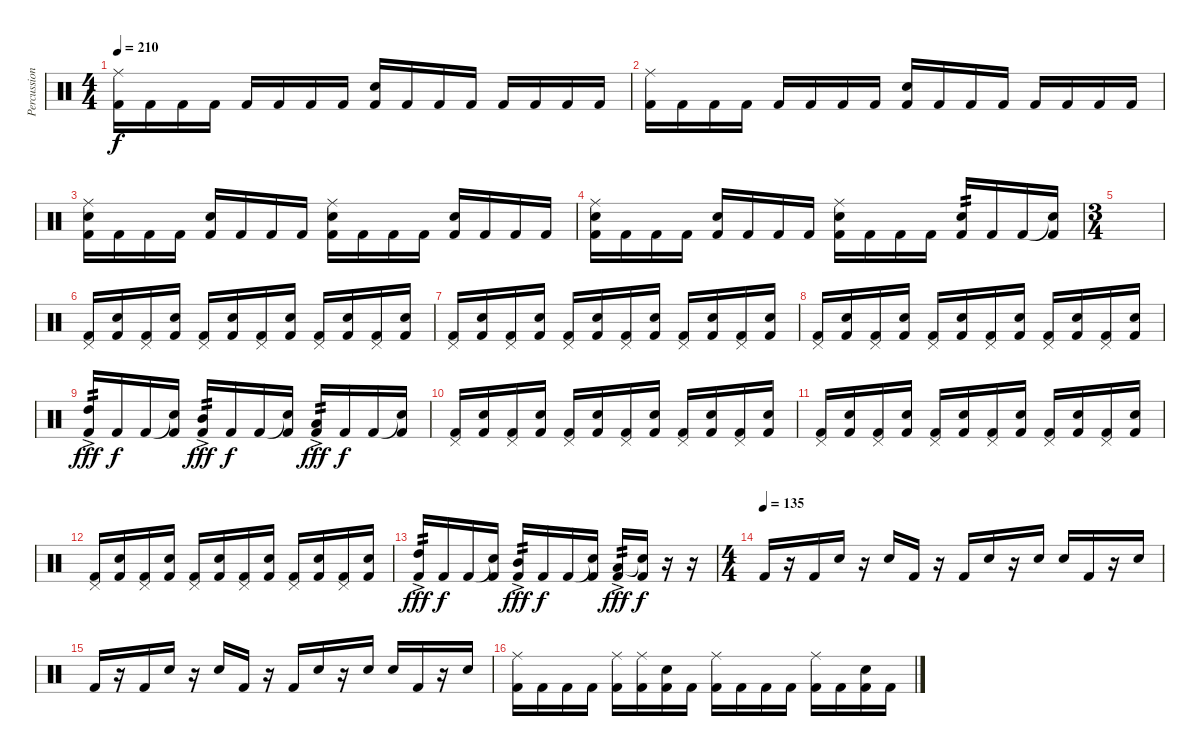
\track ("Percussions" "Percussion") {instrument percussion}
\staff {score}
\articulation defaults
\ts (4 4)
\tempo 210
\clef neutral
\ks c
("Ride (middle)" "Kick (hit) 2").16{dy f} "Kick (hit) 2".16 "Kick (hit) 2".16 "Kick (hit) 2".16 "Kick (hit) 2".16 "Kick (hit) 2".16 "Kick (hit) 2".16 "Kick (hit) 2".16 ("Snare (hit) 2" "Kick (hit) 2").16 "Kick (hit) 2".16 "Kick (hit) 2".16 "Kick (hit) 2".16 "Kick (hit) 2".16 "Kick (hit) 2".16 "Kick (hit) 2".16 "Kick (hit) 2".16 |
("Ride (middle)" "Kick (hit) 2").16 "Kick (hit) 2".16 "Kick (hit) 2".16 "Kick (hit) 2".16 "Kick (hit) 2".16 "Kick (hit) 2".16 "Kick (hit) 2".16 "Kick (hit) 2".16 ("Snare (hit) 2" "Kick (hit) 2").16 "Kick (hit) 2".16 "Kick (hit) 2".16 "Kick (hit) 2".16 "Kick (hit) 2".16 "Kick (hit) 2".16 "Kick (hit) 2".16 "Kick (hit) 2".16 |
("Snare (hit) 2" "Ride (middle)" "Kick (hit) 2").16 "Kick (hit) 2".16 "Kick (hit) 2".16 "Kick (hit) 2".16 ("Snare (hit) 2" "Kick (hit) 2").16 "Kick (hit) 2".16 "Kick (hit) 2".16 "Kick (hit) 2".16 ("Snare (hit) 2" "Ride (middle)" "Kick (hit) 2").16 "Kick (hit) 2".16 "Kick (hit) 2".16 "Kick (hit) 2".16 ("Snare (hit) 2" "Kick (hit) 2").16 "Kick (hit) 2".16 "Kick (hit) 2".16 "Kick (hit) 2".16 |
("Snare (hit) 2" "Ride (middle)" "Kick (hit) 2").16 "Kick (hit) 2".16 "Kick (hit) 2".16 "Kick (hit) 2".16 ("Snare (hit) 2" "Kick (hit) 2").16 "Kick (hit) 2".16 "Kick (hit) 2".16 "Kick (hit) 2".16 ("Snare (hit) 2" "Ride (middle)" "Kick (hit) 2").16 "Kick (hit) 2".16 "Kick (hit) 2".16 "Kick (hit) 2".16 ("Snare (hit) 2" "Kick (hit) 2").16{tp 2} "Kick (hit) 2".16 "Kick (hit) 2".16 ("Snare (hit)"{t} "Kick (hit) 2").16 |
\ts (3 4)
|
("Pedal Hi-Hat (hit)" "Kick (hit) 2").16 ("Snare (hit) 2" "Kick (hit) 2").16 ("Pedal Hi-Hat (hit)" "Kick (hit) 2").16 ("Snare (hit) 2" "Kick (hit) 2").16 ("Pedal Hi-Hat (hit)" "Kick (hit) 2").16 ("Snare (hit) 2" "Kick (hit) 2").16 ("Pedal Hi-Hat (hit)" "Kick (hit) 2").16 ("Snare (hit) 2" "Kick (hit) 2").16 ("Pedal Hi-Hat (hit)" "Kick (hit) 2").16 ("Snare (hit) 2" "Kick (hit) 2").16 ("Pedal Hi-Hat (hit)" "Kick (hit) 2").16 ("Snare (hit) 2" "Kick (hit) 2").16 |
("Pedal Hi-Hat (hit)" "Kick (hit) 2").16 ("Snare (hit) 2" "Kick (hit) 2").16 ("Pedal Hi-Hat (hit)" "Kick (hit) 2").16 ("Snare (hit) 2" "Kick (hit) 2").16 ("Pedal Hi-Hat (hit)" "Kick (hit) 2").16 ("Snare (hit) 2" "Kick (hit) 2").16 ("Pedal Hi-Hat (hit)" "Kick (hit) 2").16 ("Snare (hit) 2" "Kick (hit) 2").16 ("Pedal Hi-Hat (hit)" "Kick (hit) 2").16 ("Snare (hit) 2" "Kick (hit) 2").16 ("Pedal Hi-Hat (hit)" "Kick (hit) 2").16 ("Snare (hit) 2" "Kick (hit) 2").16 |
("Pedal Hi-Hat (hit)" "Kick (hit) 2").16 ("Snare (hit) 2" "Kick (hit) 2").16 ("Pedal Hi-Hat (hit)" "Kick (hit) 2").16 ("Snare (hit) 2" "Kick (hit) 2").16 ("Pedal Hi-Hat (hit)" "Kick (hit) 2").16 ("Snare (hit) 2" "Kick (hit) 2").16 ("Pedal Hi-Hat (hit)" "Kick (hit) 2").16 ("Snare (hit) 2" "Kick (hit) 2").16 ("Pedal Hi-Hat (hit)" "Kick (hit) 2").16 ("Snare (hit) 2" "Kick (hit) 2").16 ("Pedal Hi-Hat (hit)" "Kick (hit) 2").16 ("Snare (hit) 2" "Kick (hit) 2").16 |
("High Tom (hit)"{ac} "Kick (hit) 2").16{tp 2 dy fff} "Kick (hit) 2".16{dy f} "Kick (hit) 2".16 ("Snare (hit) 2"{t} "Kick (hit) 2").16 ("Mid Tom (hit)"{ac} "Kick (hit) 2").16{tp 2 dy fff} "Kick (hit) 2".16{dy f} "Kick (hit) 2".16 ("Snare (hit) 2"{t} "Kick (hit) 2").16 ("Low Tom (hit)"{ac} "Kick (hit) 2").16{tp 2 dy fff} "Kick (hit) 2".16{dy f} "Kick (hit) 2".16 ("Snare (hit) 2"{t} "Kick (hit) 2").16 |
("Pedal Hi-Hat (hit)" "Kick (hit) 2").16 ("Snare (hit) 2" "Kick (hit) 2").16 ("Pedal Hi-Hat (hit)" "Kick (hit) 2").16 ("Snare (hit) 2" "Kick (hit) 2").16 ("Pedal Hi-Hat (hit)" "Kick (hit) 2").16 ("Snare (hit) 2" "Kick (hit) 2").16 ("Pedal Hi-Hat (hit)" "Kick (hit) 2").16 ("Snare (hit) 2" "Kick (hit) 2").16 ("Pedal Hi-Hat (hit)" "Kick (hit) 2").16 ("Snare (hit) 2" "Kick (hit) 2").16 ("Pedal Hi-Hat (hit)" "Kick (hit) 2").16 ("Snare (hit) 2" "Kick (hit) 2").16 |
("Pedal Hi-Hat (hit)" "Kick (hit) 2").16 ("Snare (hit) 2" "Kick (hit) 2").16 ("Pedal Hi-Hat (hit)" "Kick (hit) 2").16 ("Snare (hit) 2" "Kick (hit) 2").16 ("Pedal Hi-Hat (hit)" "Kick (hit) 2").16 ("Snare (hit) 2" "Kick (hit) 2").16 ("Pedal Hi-Hat (hit)" "Kick (hit) 2").16 ("Snare (hit) 2" "Kick (hit) 2").16 ("Pedal Hi-Hat (hit)" "Kick (hit) 2").16 ("Snare (hit) 2" "Kick (hit) 2").16 ("Pedal Hi-Hat (hit)" "Kick (hit) 2").16 ("Snare (hit) 2" "Kick (hit) 2").16 |
("Pedal Hi-Hat (hit)" "Kick (hit) 2").16 ("Snare (hit) 2" "Kick (hit) 2").16 ("Pedal Hi-Hat (hit)" "Kick (hit) 2").16 ("Snare (hit) 2" "Kick (hit) 2").16 ("Pedal Hi-Hat (hit)" "Kick (hit) 2").16 ("Snare (hit) 2" "Kick (hit) 2").16 ("Pedal Hi-Hat (hit)" "Kick (hit) 2").16 ("Snare (hit) 2" "Kick (hit) 2").16 ("Pedal Hi-Hat (hit)" "Kick (hit) 2").16 ("Snare (hit) 2" "Kick (hit) 2").16 ("Pedal Hi-Hat (hit)" "Kick (hit) 2").16 ("Snare (hit) 2" "Kick (hit) 2").16 |
("High Tom (hit)"{ac} "Kick (hit) 2").16{tp 2 dy fff} "Kick (hit) 2".16{dy f} "Kick (hit) 2".16 ("Snare (hit) 2"{t} "Kick (hit) 2").16 ("Mid Tom (hit)"{ac} "Kick (hit) 2").16{tp 2 dy fff} "Kick (hit) 2".16{dy f} "Kick (hit) 2".16 ("Snare (hit) 2"{t} "Kick (hit) 2").16 ("Low Tom (hit)"{ac} "Kick (hit) 2").16{tp 2 dy fff} ("Snare (hit)"{t} "Kick (hit) 2").16{dy f} r.16 r.16 |
\ts (4 4)
\tempo (135)
"Kick (hit) 2".16 r.16 "Kick (hit) 2".16 "Snare (hit) 2".16 r.16 "Snare (hit) 2".16 "Kick (hit) 2".16 r.16 "Kick (hit) 2".16 "Snare (hit) 2".16 r.16 "Snare (hit) 2".16 "Snare (hit) 2".16 "Kick (hit) 2".16 r.16 "Snare (hit) 2".16 |
"Kick (hit) 2".16 r.16 "Kick (hit) 2".16 "Snare (hit) 2".16 r.16 "Snare (hit) 2".16 "Kick (hit) 2".16 r.16 "Kick (hit) 2".16 "Snare (hit) 2".16 r.16 "Snare (hit) 2".16 "Snare (hit) 2".16 "Kick (hit) 2".16 r.16 "Snare (hit) 2".16 |
("Ride (middle)" "Kick (hit) 2").16 "Kick (hit) 2".16 "Kick (hit) 2".16 "Kick (hit) 2".16 ("Ride (middle)" "Kick (hit) 2").16 ("Ride (middle)" "Kick (hit) 2").16 ("Snare (hit) 2" "Kick (hit) 2").16 "Kick (hit) 2".16 ("Ride (middle)" "Kick (hit) 2").16 "Kick (hit) 2".16 "Kick (hit) 2".16 "Kick (hit) 2".16 ("Ride (middle)" "Kick (hit) 2").16 "Kick (hit) 2".16 ("Snare (hit) 2" "Kick (hit) 2").16 "Kick (hit) 2".16
